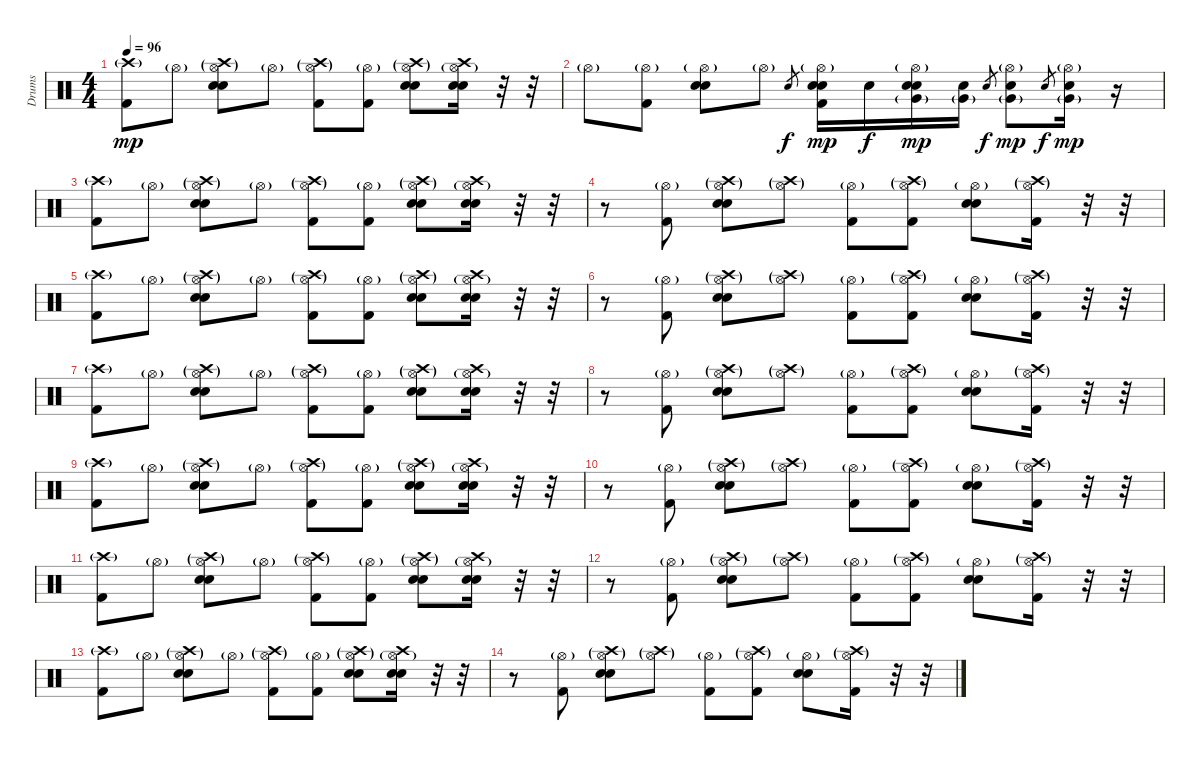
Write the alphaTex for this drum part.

\track ("Drums" "Drums") {instrument percussion}
\staff {score}
\articulation defaults
\ts (4 4)
\tempo 96
\clef neutral
\ks c
("Crash high (hit)"{g} "Kick (hit) 2").8{dy mp} "Hi-Hat (open)"{g}.8 ("Hi-Hat (open)"{g} "Crash high (hit)"{g} "Electric Snare (hit)" "Snare (hit) 2").8 "Hi-Hat (open)"{g}.8 ("Hi-Hat (open)"{g} "Crash high (hit)"{g} "Kick (hit) 2").8 ("Hi-Hat (open)"{g} "Kick (hit) 2").8 ("Hi-Hat (open)"{g} "Crash high (hit)"{g} "Electric Snare (hit)" "Snare (hit) 2").8 ("Hi-Hat (open)"{g} "Crash high (hit)" "Electric Snare (hit)" "Snare (hit) 2").16 r.32 r.32 |
"Hi-Hat (open)"{g}.8 ("Hi-Hat (open)"{g} "Kick (hit) 2").8 ("Hi-Hat (open)"{g} "Electric Snare (hit)" "Snare (hit) 2").8 "Hi-Hat (open)"{g}.8 "Snare (hit) 2".8{gr dy f} ("Hi-Hat (open)"{g} "Electric Snare (hit)" "Snare (hit) 2" "Kick (hit) 2").16{dy mp} "Electric Snare (hit)".16{dy f} ("Hi-Hat (open)"{g} "Very Low Tom (hit)"{g} "Electric Snare (hit)" "Snare (hit) 2").16{dy mp} ("Very Low Tom (hit)"{g} "Electric Snare (hit)").16 "Electric Snare (hit)".8{gr dy f} ("Hi-Hat (open)"{g} "Very Low Tom (hit)"{g} "Snare (hit) 2").8{dy mp} "Electric Snare (hit)".8{gr dy f} ("Hi-Hat (open)"{g} "Very Low Tom (hit)"{g} "Snare (hit) 2").16{dy mp} r.16 |
("Crash high (hit)"{g} "Kick (hit) 2").8 "Hi-Hat (open)"{g}.8 ("Hi-Hat (open)"{g} "Crash high (hit)"{g} "Electric Snare (hit)" "Snare (hit) 2").8 "Hi-Hat (open)"{g}.8 ("Hi-Hat (open)"{g} "Crash high (hit)"{g} "Kick (hit) 2").8 ("Hi-Hat (open)"{g} "Kick (hit) 2").8 ("Hi-Hat (open)"{g} "Crash high (hit)"{g} "Electric Snare (hit)" "Snare (hit) 2").8 ("Hi-Hat (open)"{g} "Crash high (hit)" "Electric Snare (hit)" "Snare (hit) 2").16 r.32 r.32 |
r.8 ("Hi-Hat (open)"{g} "Kick (hit) 2").8 ("Hi-Hat (open)"{g} "Crash high (hit)"{g} "Electric Snare (hit)" "Snare (hit) 2").8 ("Hi-Hat (open)"{g} "Crash high (hit)"{g}).8 ("Hi-Hat (open)"{g} "Kick (hit) 2").8 ("Hi-Hat (open)"{g} "Crash high (hit)"{g} "Kick (hit) 2").8 ("Hi-Hat (open)"{g} "Electric Snare (hit)" "Snare (hit) 2").8 ("Hi-Hat (open)"{g} "Crash high (hit)"{g} "Kick (hit) 2").16 r.32 r.32 |
("Crash high (hit)"{g} "Kick (hit) 2").8 "Hi-Hat (open)"{g}.8 ("Hi-Hat (open)"{g} "Crash high (hit)"{g} "Electric Snare (hit)" "Snare (hit) 2").8 "Hi-Hat (open)"{g}.8 ("Hi-Hat (open)"{g} "Crash high (hit)"{g} "Kick (hit) 2").8 ("Hi-Hat (open)"{g} "Kick (hit) 2").8 ("Hi-Hat (open)"{g} "Crash high (hit)"{g} "Electric Snare (hit)" "Snare (hit) 2").8 ("Hi-Hat (open)"{g} "Crash high (hit)" "Electric Snare (hit)" "Snare (hit) 2").16 r.32 r.32 |
r.8 ("Hi-Hat (open)"{g} "Kick (hit) 2").8 ("Hi-Hat (open)"{g} "Crash high (hit)"{g} "Electric Snare (hit)" "Snare (hit) 2").8 ("Hi-Hat (open)"{g} "Crash high (hit)"{g}).8 ("Hi-Hat (open)"{g} "Kick (hit) 2").8 ("Hi-Hat (open)"{g} "Crash high (hit)"{g} "Kick (hit) 2").8 ("Hi-Hat (open)"{g} "Electric Snare (hit)" "Snare (hit) 2").8 ("Hi-Hat (open)"{g} "Crash high (hit)"{g} "Kick (hit) 2").16 r.32 r.32 |
("Crash high (hit)"{g} "Kick (hit) 2").8 "Hi-Hat (open)"{g}.8 ("Hi-Hat (open)"{g} "Crash high (hit)"{g} "Electric Snare (hit)" "Snare (hit) 2").8 "Hi-Hat (open)"{g}.8 ("Hi-Hat (open)"{g} "Crash high (hit)"{g} "Kick (hit) 2").8 ("Hi-Hat (open)"{g} "Kick (hit) 2").8 ("Hi-Hat (open)"{g} "Crash high (hit)"{g} "Electric Snare (hit)" "Snare (hit) 2").8 ("Hi-Hat (open)"{g} "Crash high (hit)" "Electric Snare (hit)" "Snare (hit) 2").16 r.32 r.32 |
r.8 ("Hi-Hat (open)"{g} "Kick (hit) 2").8 ("Hi-Hat (open)"{g} "Crash high (hit)"{g} "Electric Snare (hit)" "Snare (hit) 2").8 ("Hi-Hat (open)"{g} "Crash high (hit)"{g}).8 ("Hi-Hat (open)"{g} "Kick (hit) 2").8 ("Hi-Hat (open)"{g} "Crash high (hit)"{g} "Kick (hit) 2").8 ("Hi-Hat (open)"{g} "Electric Snare (hit)" "Snare (hit) 2").8 ("Hi-Hat (open)"{g} "Crash high (hit)"{g} "Kick (hit) 2").16 r.32 r.32 |
("Crash high (hit)"{g} "Kick (hit) 2").8 "Hi-Hat (open)"{g}.8 ("Hi-Hat (open)"{g} "Crash high (hit)"{g} "Electric Snare (hit)" "Snare (hit) 2").8 "Hi-Hat (open)"{g}.8 ("Hi-Hat (open)"{g} "Crash high (hit)"{g} "Kick (hit) 2").8 ("Hi-Hat (open)"{g} "Kick (hit) 2").8 ("Hi-Hat (open)"{g} "Crash high (hit)"{g} "Electric Snare (hit)" "Snare (hit) 2").8 ("Hi-Hat (open)"{g} "Crash high (hit)" "Electric Snare (hit)" "Snare (hit) 2").16 r.32 r.32 |
r.8 ("Hi-Hat (open)"{g} "Kick (hit) 2").8 ("Hi-Hat (open)"{g} "Crash high (hit)"{g} "Electric Snare (hit)" "Snare (hit) 2").8 ("Hi-Hat (open)"{g} "Crash high (hit)"{g}).8 ("Hi-Hat (open)"{g} "Kick (hit) 2").8 ("Hi-Hat (open)"{g} "Crash high (hit)"{g} "Kick (hit) 2").8 ("Hi-Hat (open)"{g} "Electric Snare (hit)" "Snare (hit) 2").8 ("Hi-Hat (open)"{g} "Crash high (hit)"{g} "Kick (hit) 2").16 r.32 r.32 |
("Crash high (hit)"{g} "Kick (hit) 2").8 "Hi-Hat (open)"{g}.8 ("Hi-Hat (open)"{g} "Crash high (hit)"{g} "Electric Snare (hit)" "Snare (hit) 2").8 "Hi-Hat (open)"{g}.8 ("Hi-Hat (open)"{g} "Crash high (hit)"{g} "Kick (hit) 2").8 ("Hi-Hat (open)"{g} "Kick (hit) 2").8 ("Hi-Hat (open)"{g} "Crash high (hit)"{g} "Electric Snare (hit)" "Snare (hit) 2").8 ("Hi-Hat (open)"{g} "Crash high (hit)" "Electric Snare (hit)" "Snare (hit) 2").16 r.32 r.32 |
r.8 ("Hi-Hat (open)"{g} "Kick (hit) 2").8 ("Hi-Hat (open)"{g} "Crash high (hit)"{g} "Electric Snare (hit)" "Snare (hit) 2").8 ("Hi-Hat (open)"{g} "Crash high (hit)"{g}).8 ("Hi-Hat (open)"{g} "Kick (hit) 2").8 ("Hi-Hat (open)"{g} "Crash high (hit)"{g} "Kick (hit) 2").8 ("Hi-Hat (open)"{g} "Electric Snare (hit)" "Snare (hit) 2").8 ("Hi-Hat (open)"{g} "Crash high (hit)"{g} "Kick (hit) 2").16 r.32 r.32 |
("Crash high (hit)"{g} "Kick (hit) 2").8 "Hi-Hat (open)"{g}.8 ("Hi-Hat (open)"{g} "Crash high (hit)"{g} "Electric Snare (hit)" "Snare (hit) 2").8 "Hi-Hat (open)"{g}.8 ("Hi-Hat (open)"{g} "Crash high (hit)"{g} "Kick (hit) 2").8 ("Hi-Hat (open)"{g} "Kick (hit) 2").8 ("Hi-Hat (open)"{g} "Crash high (hit)"{g} "Electric Snare (hit)" "Snare (hit) 2").8 ("Hi-Hat (open)"{g} "Crash high (hit)" "Electric Snare (hit)" "Snare (hit) 2").16 r.32 r.32 |
r.8 ("Hi-Hat (open)"{g} "Kick (hit) 2").8 ("Hi-Hat (open)"{g} "Crash high (hit)"{g} "Electric Snare (hit)" "Snare (hit) 2").8 ("Hi-Hat (open)"{g} "Crash high (hit)"{g}).8 ("Hi-Hat (open)"{g} "Kick (hit) 2").8 ("Hi-Hat (open)"{g} "Crash high (hit)"{g} "Kick (hit) 2").8 ("Hi-Hat (open)"{g} "Electric Snare (hit)" "Snare (hit) 2").8 ("Hi-Hat (open)"{g} "Crash high (hit)"{g} "Kick (hit) 2").16 r.32 r.32
